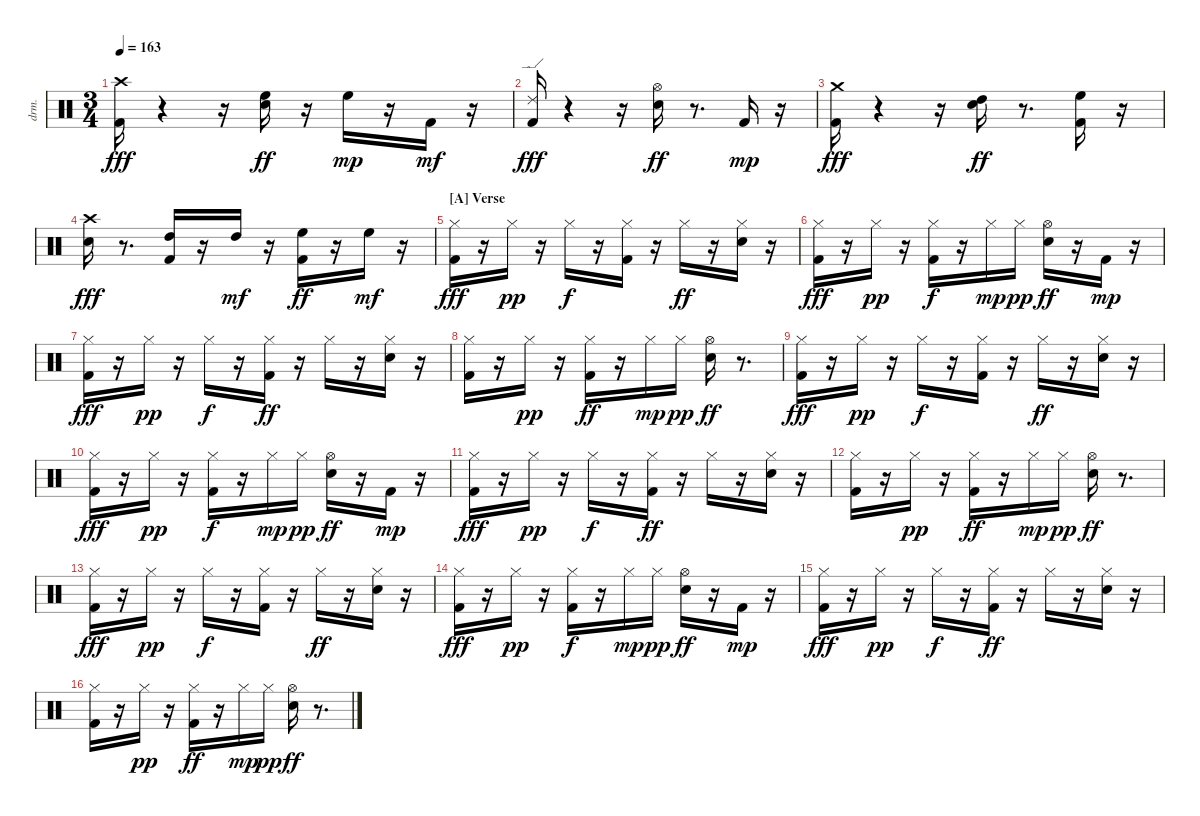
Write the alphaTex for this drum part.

\bracketExtendMode nobrackets
\track ("EZdrummer 3" "drm.") {instrument percussion}
\staff {score}
\articulation defaults
\ts (3 4)
\tempo 163
\clef neutral
\ks aminor
("Kick (hit) 2" "Crash high (hit)"{acc #}).16{dy fff beam Down} r.4{beam Down} r.16{beam Down} ("Snare (hit) 2" "High Floor Tom (hit)").16{dy ff beam Down} r.16{beam Down} "High Floor Tom (hit)".16{dy mp beam Down} r.16{beam Down} "Kick (hit) 2".16{dy mf beam Down} r.16{beam Down} |
("Kick (hit) 2" "Ride (edge) 2").16{dy fff beam Up} r.4{beam Down} r.16{beam Down} ("Snare (hit) 2" "Hi-Hat (open)"{acc #}).16{dy ff beam Down} r.8{d beam Down} "Kick (hit) 2".16{dy mp beam Up} r.16{beam Down} |
("Kick (hit) 2" "Crash medium (hit)").16{dy fff beam Down} r.4{beam Down} r.16{beam Down} ("Snare (hit) 2" "High Tom (hit)").16{dy ff beam Down} r.8{d beam Down} ("Kick (hit) 2" "High Floor Tom (hit)").16{beam Down} r.16{beam Down} |
("Snare (hit) 2" "Crash high (hit)"{acc #}).16{dy fff beam Down} r.8{d beam Down} ("Kick (hit) 2" "High Tom (hit)").16{beam Up} r.16{beam Up} "High Tom (hit)".16{dy mf beam Up} r.16{beam Down} ("Kick (hit) 2" "High Floor Tom (hit)").16{dy ff beam Down} r.16{beam Down} "High Floor Tom (hit)".16{dy mf beam Down} r.16{beam Down} |
\section ("A" "Verse")
("Kick (hit) 2" "Hi-Hat (closed)"{acc #}).16{dy fff beam Down} r.16{beam Down} "Hi-Hat (closed)"{acc #}.16{dy pp beam Down} r.16{beam Down} "Hi-Hat (closed)"{acc #}.16{dy f beam Down} r.16{beam Down} ("Kick (hit) 2" "Hi-Hat (closed)"{acc #}).16{beam Down} r.16{beam Down} "Hi-Hat (closed)"{acc #}.16{dy ff beam Down} r.16{beam Down} ("Snare (hit) 2" "Hi-Hat (closed)"{acc #}).16{beam Down} r.16{beam Down} |
("Kick (hit) 2" "Hi-Hat (closed)"{acc #}).16{dy fff beam Down} r.16{beam Down} "Hi-Hat (closed)"{acc #}.16{dy pp beam Down} r.16{beam Down} ("Kick (hit) 2" "Hi-Hat (closed)"{acc #}).16{dy f beam Down} r.16{beam Down} "Hi-Hat (closed)"{acc #}.16{dy mp beam Down} "Hi-Hat (closed)"{acc #}.16{dy pp beam Down} ("Snare (hit) 2" "Hi-Hat (open)"{acc #}).16{dy ff beam Down} r.16{beam Down} "Kick (hit) 2".16{dy mp beam Down} r.16{beam Down} |
("Kick (hit) 2" "Hi-Hat (closed)"{acc #}).16{dy fff beam Down} r.16{beam Down} "Hi-Hat (closed)"{acc #}.16{dy pp beam Down} r.16{beam Down} "Hi-Hat (closed)"{acc #}.16{dy f beam Down} r.16{beam Down} ("Kick (hit) 2" "Hi-Hat (closed)"{acc #}).16{dy ff beam Down} r.16{beam Down} "Hi-Hat (closed)"{acc #}.16{beam Down} r.16{beam Down} ("Snare (hit) 2" "Hi-Hat (closed)"{acc #}).16{beam Down} r.16{beam Down} |
("Kick (hit) 2" "Hi-Hat (closed)"{acc #}).16{beam Down} r.16{beam Down} "Hi-Hat (closed)"{acc #}.16{dy pp beam Down} r.16{beam Down} ("Kick (hit) 2" "Hi-Hat (closed)"{acc #}).16{dy ff beam Down} r.16{beam Down} "Hi-Hat (closed)"{acc #}.16{dy mp beam Down} "Hi-Hat (closed)"{acc #}.16{dy pp beam Down} ("Snare (hit) 2" "Hi-Hat (open)"{acc #}).16{dy ff beam Down} r.8{d beam Down} |
("Kick (hit) 2" "Hi-Hat (closed)"{acc #}).16{dy fff beam Down} r.16{beam Down} "Hi-Hat (closed)"{acc #}.16{dy pp beam Down} r.16{beam Down} "Hi-Hat (closed)"{acc #}.16{dy f beam Down} r.16{beam Down} ("Kick (hit) 2" "Hi-Hat (closed)"{acc #}).16{beam Down} r.16{beam Down} "Hi-Hat (closed)"{acc #}.16{dy ff beam Down} r.16{beam Down} ("Snare (hit) 2" "Hi-Hat (closed)"{acc #}).16{beam Down} r.16{beam Down} |
("Kick (hit) 2" "Hi-Hat (closed)"{acc #}).16{dy fff beam Down} r.16{beam Down} "Hi-Hat (closed)"{acc #}.16{dy pp beam Down} r.16{beam Down} ("Kick (hit) 2" "Hi-Hat (closed)"{acc #}).16{dy f beam Down} r.16{beam Down} "Hi-Hat (closed)"{acc #}.16{dy mp beam Down} "Hi-Hat (closed)"{acc #}.16{dy pp beam Down} ("Snare (hit) 2" "Hi-Hat (open)"{acc #}).16{dy ff beam Down} r.16{beam Down} "Kick (hit) 2".16{dy mp beam Down} r.16{beam Down} |
("Kick (hit) 2" "Hi-Hat (closed)"{acc #}).16{dy fff beam Down} r.16{beam Down} "Hi-Hat (closed)"{acc #}.16{dy pp beam Down} r.16{beam Down} "Hi-Hat (closed)"{acc #}.16{dy f beam Down} r.16{beam Down} ("Kick (hit) 2" "Hi-Hat (closed)"{acc #}).16{dy ff beam Down} r.16{beam Down} "Hi-Hat (closed)"{acc #}.16{beam Down} r.16{beam Down} ("Snare (hit) 2" "Hi-Hat (closed)"{acc #}).16{beam Down} r.16{beam Down} |
("Kick (hit) 2" "Hi-Hat (closed)"{acc #}).16{beam Down} r.16{beam Down} "Hi-Hat (closed)"{acc #}.16{dy pp beam Down} r.16{beam Down} ("Kick (hit) 2" "Hi-Hat (closed)"{acc #}).16{dy ff beam Down} r.16{beam Down} "Hi-Hat (closed)"{acc #}.16{dy mp beam Down} "Hi-Hat (closed)"{acc #}.16{dy pp beam Down} ("Snare (hit) 2" "Hi-Hat (open)"{acc #}).16{dy ff beam Down} r.8{d beam Down} |
("Kick (hit) 2" "Hi-Hat (closed)"{acc #}).16{dy fff beam Down} r.16{beam Down} "Hi-Hat (closed)"{acc #}.16{dy pp beam Down} r.16{beam Down} "Hi-Hat (closed)"{acc #}.16{dy f beam Down} r.16{beam Down} ("Kick (hit) 2" "Hi-Hat (closed)"{acc #}).16{beam Down} r.16{beam Down} "Hi-Hat (closed)"{acc #}.16{dy ff beam Down} r.16{beam Down} ("Snare (hit) 2" "Hi-Hat (closed)"{acc #}).16{beam Down} r.16{beam Down} |
("Kick (hit) 2" "Hi-Hat (closed)"{acc #}).16{dy fff beam Down} r.16{beam Down} "Hi-Hat (closed)"{acc #}.16{dy pp beam Down} r.16{beam Down} ("Kick (hit) 2" "Hi-Hat (closed)"{acc #}).16{dy f beam Down} r.16{beam Down} "Hi-Hat (closed)"{acc #}.16{dy mp beam Down} "Hi-Hat (closed)"{acc #}.16{dy pp beam Down} ("Snare (hit) 2" "Hi-Hat (open)"{acc #}).16{dy ff beam Down} r.16{beam Down} "Kick (hit) 2".16{dy mp beam Down} r.16{beam Down} |
("Kick (hit) 2" "Hi-Hat (closed)"{acc #}).16{dy fff beam Down} r.16{beam Down} "Hi-Hat (closed)"{acc #}.16{dy pp beam Down} r.16{beam Down} "Hi-Hat (closed)"{acc #}.16{dy f beam Down} r.16{beam Down} ("Kick (hit) 2" "Hi-Hat (closed)"{acc #}).16{dy ff beam Down} r.16{beam Down} "Hi-Hat (closed)"{acc #}.16{beam Down} r.16{beam Down} ("Snare (hit) 2" "Hi-Hat (closed)"{acc #}).16{beam Down} r.16{beam Down} |
("Kick (hit) 2" "Hi-Hat (closed)"{acc #}).16{beam Down} r.16{beam Down} "Hi-Hat (closed)"{acc #}.16{dy pp beam Down} r.16{beam Down} ("Kick (hit) 2" "Hi-Hat (closed)"{acc #}).16{dy ff beam Down} r.16{beam Down} "Hi-Hat (closed)"{acc #}.16{dy mp beam Down} "Hi-Hat (closed)"{acc #}.16{dy pp beam Down} ("Snare (hit) 2" "Hi-Hat (open)"{acc #}).16{dy ff beam Down} r.8{d beam Down}
